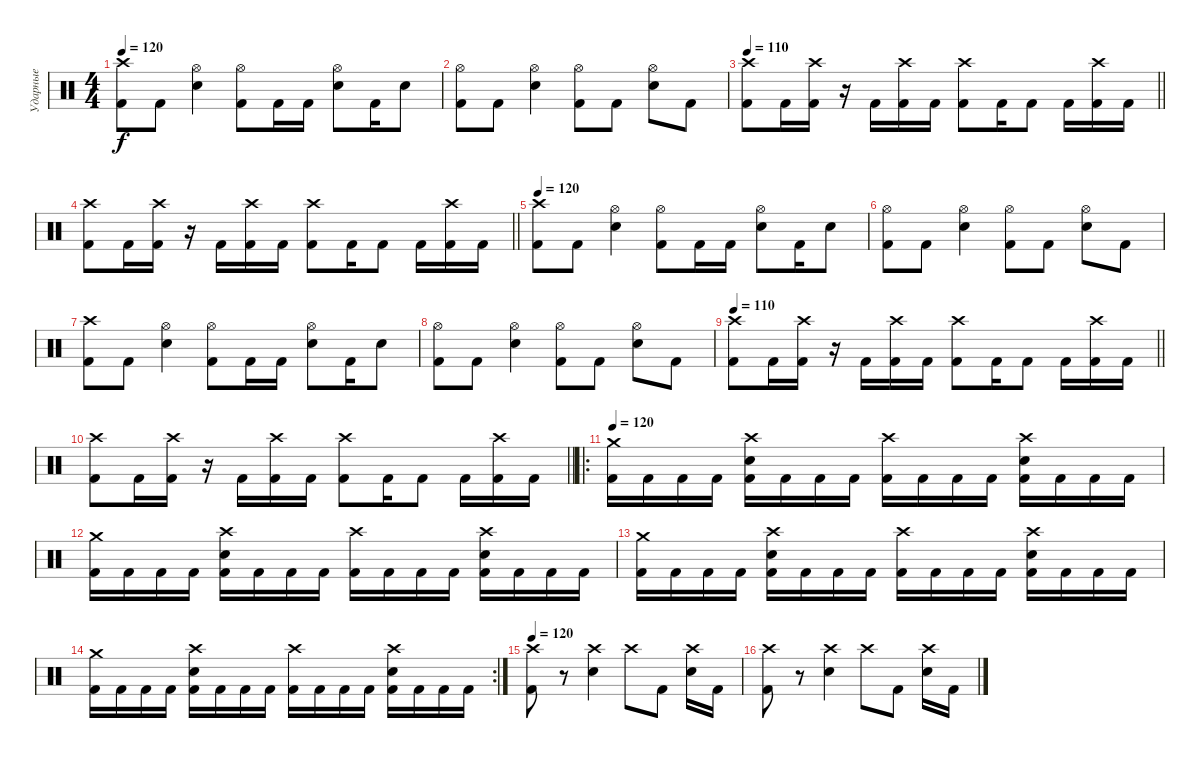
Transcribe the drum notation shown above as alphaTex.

\track ("Ударные" "Ударные") {instrument percussion}
\staff {score}
\articulation defaults
\ts (4 4)
\tempo 120
\clef neutral
\ks c
("Crash high (hit)" "Kick (hit) 2").8{dy f} "Kick (hit) 2".8 ("Hi-Hat (open)" "Electric Snare (hit)").4 ("Hi-Hat (open)" "Kick (hit) 2").8 "Kick (hit) 2".16 "Kick (hit) 2".16 ("Hi-Hat (open)" "Electric Snare (hit)").8 "Kick (hit) 2".16 "Electric Snare (hit)".8 |
("Hi-Hat (open)" "Kick (hit) 2").8 "Kick (hit) 2".8 ("Hi-Hat (open)" "Electric Snare (hit)").4 ("Hi-Hat (open)" "Kick (hit) 2").8 "Kick (hit) 2".8 ("Hi-Hat (open)" "Electric Snare (hit)").8 "Kick (hit) 2".8 |
\tempo 110
\barLineRight lightlight
("Kick (hit) 2" "Crash high (hit)").8 "Kick (hit) 2".16 ("Kick (hit) 2" "Crash high (hit)").16 r.16 "Kick (hit) 2".16 ("Kick (hit) 2" "Crash high (hit)").16 "Kick (hit) 2".16 ("Kick (hit) 2" "Crash high (hit)").8 "Kick (hit) 2".16 "Kick (hit) 2".8 "Kick (hit) 2".16 ("Kick (hit) 2" "Crash high (hit)").16 "Kick (hit) 2".16 |
\barLineRight lightlight
("Kick (hit) 2" "Crash high (hit)").8 "Kick (hit) 2".16 ("Kick (hit) 2" "Crash high (hit)").16 r.16 "Kick (hit) 2".16 ("Kick (hit) 2" "Crash high (hit)").16 "Kick (hit) 2".16 ("Kick (hit) 2" "Crash high (hit)").8 "Kick (hit) 2".16 "Kick (hit) 2".8 "Kick (hit) 2".16 ("Kick (hit) 2" "Crash high (hit)").16 "Kick (hit) 2".16 |
\tempo 120
("Crash high (hit)" "Kick (hit) 2").8 "Kick (hit) 2".8 ("Hi-Hat (open)" "Electric Snare (hit)").4 ("Hi-Hat (open)" "Kick (hit) 2").8 "Kick (hit) 2".16 "Kick (hit) 2".16 ("Hi-Hat (open)" "Electric Snare (hit)").8 "Kick (hit) 2".16 "Electric Snare (hit)".8 |
("Hi-Hat (open)" "Kick (hit) 2").8 "Kick (hit) 2".8 ("Hi-Hat (open)" "Electric Snare (hit)").4 ("Hi-Hat (open)" "Kick (hit) 2").8 "Kick (hit) 2".8 ("Hi-Hat (open)" "Electric Snare (hit)").8 "Kick (hit) 2".8 |
("Crash high (hit)" "Kick (hit) 2").8 "Kick (hit) 2".8 ("Hi-Hat (open)" "Electric Snare (hit)").4 ("Hi-Hat (open)" "Kick (hit) 2").8 "Kick (hit) 2".16 "Kick (hit) 2".16 ("Hi-Hat (open)" "Electric Snare (hit)").8 "Kick (hit) 2".16 "Electric Snare (hit)".8 |
("Hi-Hat (open)" "Kick (hit) 2").8 "Kick (hit) 2".8 ("Hi-Hat (open)" "Electric Snare (hit)").4 ("Hi-Hat (open)" "Kick (hit) 2").8 "Kick (hit) 2".8 ("Hi-Hat (open)" "Electric Snare (hit)").8 "Kick (hit) 2".8 |
\tempo 110
\barLineRight lightlight
("Kick (hit) 2" "Crash high (hit)").8 "Kick (hit) 2".16 ("Kick (hit) 2" "Crash high (hit)").16 r.16 "Kick (hit) 2".16 ("Kick (hit) 2" "Crash high (hit)").16 "Kick (hit) 2".16 ("Kick (hit) 2" "Crash high (hit)").8 "Kick (hit) 2".16 "Kick (hit) 2".8 "Kick (hit) 2".16 ("Kick (hit) 2" "Crash high (hit)").16 "Kick (hit) 2".16 |
\barLineRight lightlight
("Kick (hit) 2" "Crash high (hit)").8 "Kick (hit) 2".16 ("Kick (hit) 2" "Crash high (hit)").16 r.16 "Kick (hit) 2".16 ("Kick (hit) 2" "Crash high (hit)").16 "Kick (hit) 2".16 ("Kick (hit) 2" "Crash high (hit)").8 "Kick (hit) 2".16 "Kick (hit) 2".8 "Kick (hit) 2".16 ("Kick (hit) 2" "Crash high (hit)").16 "Kick (hit) 2".16 |
\ro
\tempo 120
("Crash medium (hit)" "Kick (hit) 2").16 "Kick (hit) 2".16 "Kick (hit) 2".16 "Kick (hit) 2".16 ("Crash high (hit)" "Electric Snare (hit)" "Kick (hit) 2").16 "Kick (hit) 2".16 "Kick (hit) 2".16 "Kick (hit) 2".16 ("Crash high (hit)" "Kick (hit) 2").16 "Kick (hit) 2".16 "Kick (hit) 2".16 "Kick (hit) 2".16 ("Crash high (hit)" "Electric Snare (hit)" "Kick (hit) 2").16 "Kick (hit) 2".16 "Kick (hit) 2".16 "Kick (hit) 2".16 |
("Crash medium (hit)" "Kick (hit) 2").16 "Kick (hit) 2".16 "Kick (hit) 2".16 "Kick (hit) 2".16 ("Crash high (hit)" "Electric Snare (hit)" "Kick (hit) 2").16 "Kick (hit) 2".16 "Kick (hit) 2".16 "Kick (hit) 2".16 ("Crash high (hit)" "Kick (hit) 2").16 "Kick (hit) 2".16 "Kick (hit) 2".16 "Kick (hit) 2".16 ("Crash high (hit)" "Electric Snare (hit)" "Kick (hit) 2").16 "Kick (hit) 2".16 "Kick (hit) 2".16 "Kick (hit) 2".16 |
("Crash medium (hit)" "Kick (hit) 2").16 "Kick (hit) 2".16 "Kick (hit) 2".16 "Kick (hit) 2".16 ("Crash high (hit)" "Electric Snare (hit)" "Kick (hit) 2").16 "Kick (hit) 2".16 "Kick (hit) 2".16 "Kick (hit) 2".16 ("Crash high (hit)" "Kick (hit) 2").16 "Kick (hit) 2".16 "Kick (hit) 2".16 "Kick (hit) 2".16 ("Crash high (hit)" "Electric Snare (hit)" "Kick (hit) 2").16 "Kick (hit) 2".16 "Kick (hit) 2".16 "Kick (hit) 2".16 |
\rc 2
("Crash medium (hit)" "Kick (hit) 2").16 "Kick (hit) 2".16 "Kick (hit) 2".16 "Kick (hit) 2".16 ("Crash high (hit)" "Electric Snare (hit)" "Kick (hit) 2").16 "Kick (hit) 2".16 "Kick (hit) 2".16 "Kick (hit) 2".16 ("Crash high (hit)" "Kick (hit) 2").16 "Kick (hit) 2".16 "Kick (hit) 2".16 "Kick (hit) 2".16 ("Crash high (hit)" "Electric Snare (hit)" "Kick (hit) 2").16 "Kick (hit) 2".16 "Kick (hit) 2".16 "Kick (hit) 2".16 |
\tempo 120
("Crash high (hit)" "Kick (hit) 2").8 r.8 ("Crash high (hit)" "Electric Snare (hit)").4 "Crash high (hit)".8 "Kick (hit) 2".8 ("Crash high (hit)" "Electric Snare (hit)").16 "Kick (hit) 2".16 |
("Crash high (hit)" "Kick (hit) 2").8 r.8 ("Crash high (hit)" "Electric Snare (hit)").4 "Crash high (hit)".8 "Kick (hit) 2".8 ("Crash high (hit)" "Electric Snare (hit)").16 "Kick (hit) 2".16
